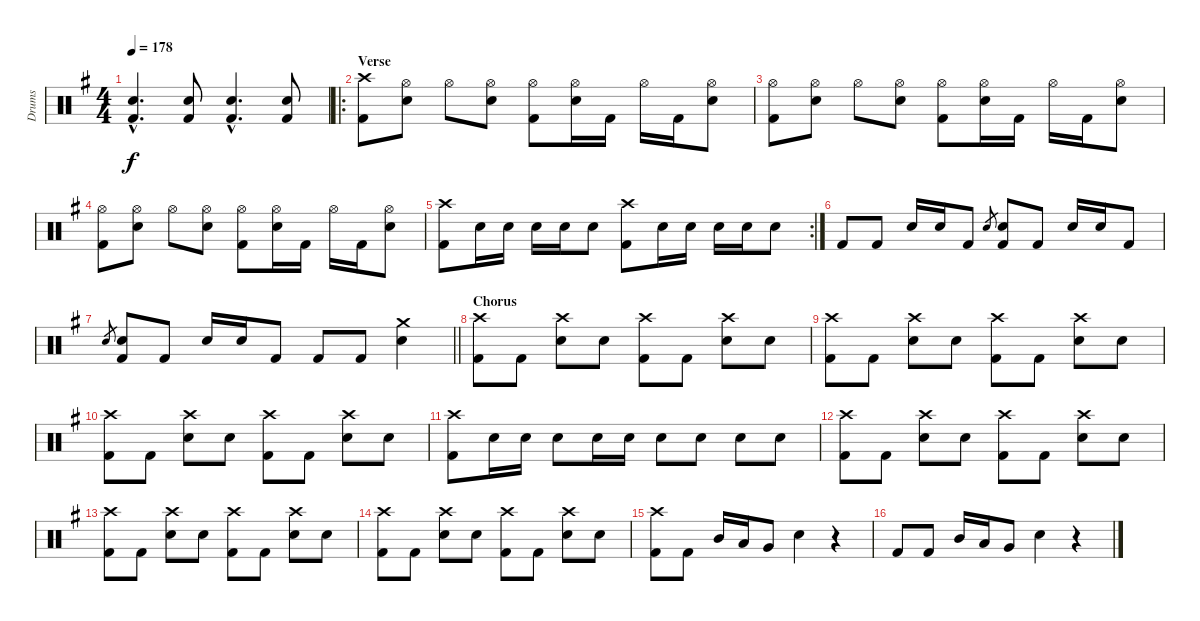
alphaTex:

\track ("Drums" "Drums") {instrument percussion}
\staff {score}
\articulation defaults
\ts (4 4)
\tempo 178
\clef neutral
\ks g
("Kick (hit) 2"{hac} "Snare (hit) 2"{hac}).4{d dy f} ("Kick (hit) 2" "Snare (hit) 2").8 ("Kick (hit) 2"{hac} "Snare (hit) 2"{hac}).4{d} ("Kick (hit) 2" "Snare (hit) 2").8 |
\ro
\section ("" "Verse")
("Kick (hit) 2" "Crash high (hit)").8 ("Snare (hit) 2" "Hi-Hat (open)").8 "Hi-Hat (open)".8 ("Snare (hit) 2" "Hi-Hat (open)").8 ("Kick (hit) 2" "Hi-Hat (open)").8 ("Snare (hit) 2" "Hi-Hat (open)").16 "Kick (hit) 2".16 "Hi-Hat (open)".16 "Kick (hit) 2".16 ("Snare (hit) 2" "Hi-Hat (open)").8 |
("Kick (hit) 2" "Hi-Hat (open)").8 ("Snare (hit) 2" "Hi-Hat (open)").8 "Hi-Hat (open)".8 ("Snare (hit) 2" "Hi-Hat (open)").8 ("Kick (hit) 2" "Hi-Hat (open)").8 ("Snare (hit) 2" "Hi-Hat (open)").16 "Kick (hit) 2".16 "Hi-Hat (open)".16 "Kick (hit) 2".16 ("Snare (hit) 2" "Hi-Hat (open)").8 |
("Kick (hit) 2" "Hi-Hat (open)").8 ("Snare (hit) 2" "Hi-Hat (open)").8 "Hi-Hat (open)".8 ("Snare (hit) 2" "Hi-Hat (open)").8 ("Kick (hit) 2" "Hi-Hat (open)").8 ("Snare (hit) 2" "Hi-Hat (open)").16 "Kick (hit) 2".16 "Hi-Hat (open)".16 "Kick (hit) 2".16 ("Snare (hit) 2" "Hi-Hat (open)").8 |
\rc 2
("Kick (hit) 2" "Crash high (hit)").8 "Snare (hit) 2".16 "Snare (hit) 2".16 "Snare (hit) 2".16 "Snare (hit) 2".16 "Snare (hit) 2".8 ("Kick (hit) 2" "Crash high (hit)").8 "Snare (hit) 2".16 "Snare (hit) 2".16 "Snare (hit) 2".16 "Snare (hit) 2".16 "Snare (hit) 2".8 |
"Kick (hit) 2".8 "Kick (hit) 2".8 "Snare (hit) 2".16 "Snare (hit) 2".16 "Kick (hit) 2".8 "Snare (hit) 2".8{gr} ("Kick (hit) 2" "Snare (hit) 2").8 "Kick (hit) 2".8 "Snare (hit) 2".16 "Snare (hit) 2".16 "Kick (hit) 2".8 |
\barLineRight lightlight "Snare (hit) 2".8{gr}
("Kick (hit) 2" "Snare (hit) 2").8 "Kick (hit) 2".8 "Snare (hit) 2".16 "Snare (hit) 2".16 "Kick (hit) 2".8 "Kick (hit) 2".8 "Kick (hit) 2".8 ("Crash medium (hit)" "Snare (hit) 2").4 |
\section ("" "Chorus")
("Kick (hit) 2" "Crash high (hit)").8 "Kick (hit) 2".8 ("Crash high (hit)" "Snare (hit) 2").8 "Snare (hit) 2".8 ("Kick (hit) 2" "Crash high (hit)").8 "Kick (hit) 2".8 ("Crash high (hit)" "Snare (hit) 2").8 "Snare (hit) 2".8 |
("Kick (hit) 2" "Crash high (hit)").8 "Kick (hit) 2".8 ("Crash high (hit)" "Snare (hit) 2").8 "Snare (hit) 2".8 ("Kick (hit) 2" "Crash high (hit)").8 "Kick (hit) 2".8 ("Crash high (hit)" "Snare (hit) 2").8 "Snare (hit) 2".8 |
("Kick (hit) 2" "Crash high (hit)").8 "Kick (hit) 2".8 ("Crash high (hit)" "Snare (hit) 2").8 "Snare (hit) 2".8 ("Kick (hit) 2" "Crash high (hit)").8 "Kick (hit) 2".8 ("Crash high (hit)" "Snare (hit) 2").8 "Snare (hit) 2".8 |
("Kick (hit) 2" "Crash high (hit)").8 "Snare (hit) 2".16 "Snare (hit) 2".16 "Snare (hit) 2".8 "Snare (hit) 2".16 "Snare (hit) 2".16 "Snare (hit) 2".8 "Snare (hit) 2".8 "Snare (hit) 2".8 "Snare (hit) 2".8 |
("Kick (hit) 2" "Crash high (hit)").8 "Kick (hit) 2".8 ("Crash high (hit)" "Snare (hit) 2").8 "Snare (hit) 2".8 ("Kick (hit) 2" "Crash high (hit)").8 "Kick (hit) 2".8 ("Crash high (hit)" "Snare (hit) 2").8 "Snare (hit) 2".8 |
("Kick (hit) 2" "Crash high (hit)").8 "Kick (hit) 2".8 ("Crash high (hit)" "Snare (hit) 2").8 "Snare (hit) 2".8 ("Kick (hit) 2" "Crash high (hit)").8 "Kick (hit) 2".8 ("Crash high (hit)" "Snare (hit) 2").8 "Snare (hit) 2".8 |
("Kick (hit) 2" "Crash high (hit)").8 "Kick (hit) 2".8 ("Crash high (hit)" "Snare (hit) 2").8 "Snare (hit) 2".8 ("Kick (hit) 2" "Crash high (hit)").8 "Kick (hit) 2".8 ("Crash high (hit)" "Snare (hit) 2").8 "Snare (hit) 2".8 |
("Kick (hit) 2" "Crash high (hit)").8 "Kick (hit) 2".8 "Mid Tom (hit)".16 "Low Tom (hit)".16 "Very Low Tom (hit)".8 "Snare (hit) 2".4 r.4 |
"Kick (hit) 2".8 "Kick (hit) 2".8 "Mid Tom (hit)".16 "Low Tom (hit)".16 "Very Low Tom (hit)".8 "Snare (hit) 2".4 r.4
